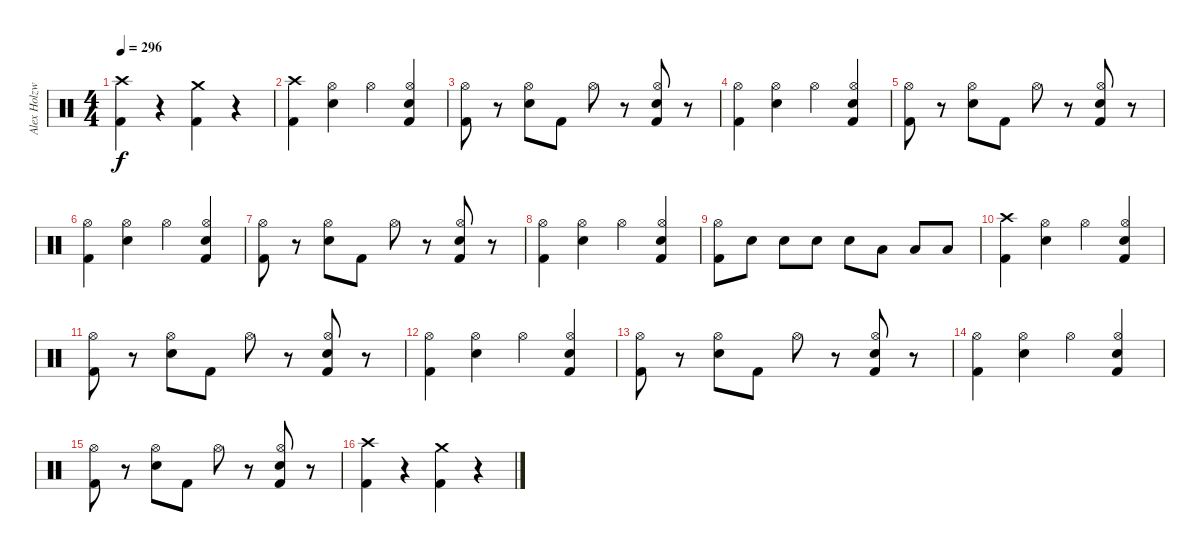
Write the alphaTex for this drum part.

\track ("Alex Holzwarth" "Alex Holzw") {instrument percussion}
\staff {score}
\articulation defaults
\ts (4 4)
\tempo 296
\clef neutral
\ks c
("Crash high (hit)" "Kick (hit) 2").4{dy f} r.4 ("Crash medium (hit)" "Kick (hit) 2").4 r.4 |
("Crash high (hit)" "Kick (hit) 2").4 ("Hi-Hat (open)" "Snare (hit) 2").4 "Hi-Hat (open)".4 ("Hi-Hat (open)" "Snare (hit) 2" "Kick (hit) 2").4 |
("Hi-Hat (open)" "Kick (hit) 2").8 r.8 ("Hi-Hat (open)" "Snare (hit) 2").8 "Kick (hit) 2".8 "Hi-Hat (open)".8 r.8 ("Hi-Hat (open)" "Snare (hit) 2" "Kick (hit) 2").8 r.8 |
("Hi-Hat (open)" "Kick (hit) 2").4 ("Hi-Hat (open)" "Snare (hit) 2").4 "Hi-Hat (open)".4 ("Hi-Hat (open)" "Snare (hit) 2" "Kick (hit) 2").4 |
("Hi-Hat (open)" "Kick (hit) 2").8 r.8 ("Hi-Hat (open)" "Snare (hit) 2").8 "Kick (hit) 2".8 "Hi-Hat (open)".8 r.8 ("Hi-Hat (open)" "Snare (hit) 2" "Kick (hit) 2").8 r.8 |
("Hi-Hat (open)" "Kick (hit) 2").4 ("Hi-Hat (open)" "Snare (hit) 2").4 "Hi-Hat (open)".4 ("Hi-Hat (open)" "Snare (hit) 2" "Kick (hit) 2").4 |
("Hi-Hat (open)" "Kick (hit) 2").8 r.8 ("Hi-Hat (open)" "Snare (hit) 2").8 "Kick (hit) 2".8 "Hi-Hat (open)".8 r.8 ("Hi-Hat (open)" "Snare (hit) 2" "Kick (hit) 2").8 r.8 |
("Hi-Hat (open)" "Kick (hit) 2").4 ("Hi-Hat (open)" "Snare (hit) 2").4 "Hi-Hat (open)".4 ("Hi-Hat (open)" "Snare (hit) 2" "Kick (hit) 2").4 |
("Hi-Hat (open)" "Kick (hit) 2").8 "Snare (hit) 2".8 "Snare (hit) 2".8 "Snare (hit) 2".8 "Snare (hit) 2".8 "Low Tom (hit)".8 "Low Tom (hit)".8 "Low Tom (hit)".8 |
("Crash high (hit)" "Kick (hit) 2").4 ("Hi-Hat (open)" "Snare (hit) 2").4 "Hi-Hat (open)".4 ("Hi-Hat (open)" "Snare (hit) 2" "Kick (hit) 2").4 |
("Hi-Hat (open)" "Kick (hit) 2").8 r.8 ("Hi-Hat (open)" "Snare (hit) 2").8 "Kick (hit) 2".8 "Hi-Hat (open)".8 r.8 ("Hi-Hat (open)" "Snare (hit) 2" "Kick (hit) 2").8 r.8 |
("Hi-Hat (open)" "Kick (hit) 2").4 ("Hi-Hat (open)" "Snare (hit) 2").4 "Hi-Hat (open)".4 ("Hi-Hat (open)" "Snare (hit) 2" "Kick (hit) 2").4 |
("Hi-Hat (open)" "Kick (hit) 2").8 r.8 ("Hi-Hat (open)" "Snare (hit) 2").8 "Kick (hit) 2".8 "Hi-Hat (open)".8 r.8 ("Hi-Hat (open)" "Snare (hit) 2" "Kick (hit) 2").8 r.8 |
("Hi-Hat (open)" "Kick (hit) 2").4 ("Hi-Hat (open)" "Snare (hit) 2").4 "Hi-Hat (open)".4 ("Hi-Hat (open)" "Snare (hit) 2" "Kick (hit) 2").4 |
("Hi-Hat (open)" "Kick (hit) 2").8 r.8 ("Hi-Hat (open)" "Snare (hit) 2").8 "Kick (hit) 2".8 "Hi-Hat (open)".8 r.8 ("Hi-Hat (open)" "Snare (hit) 2" "Kick (hit) 2").8 r.8 |
("Crash high (hit)" "Kick (hit) 2").4 r.4 ("Crash medium (hit)" "Kick (hit) 2").4 r.4
